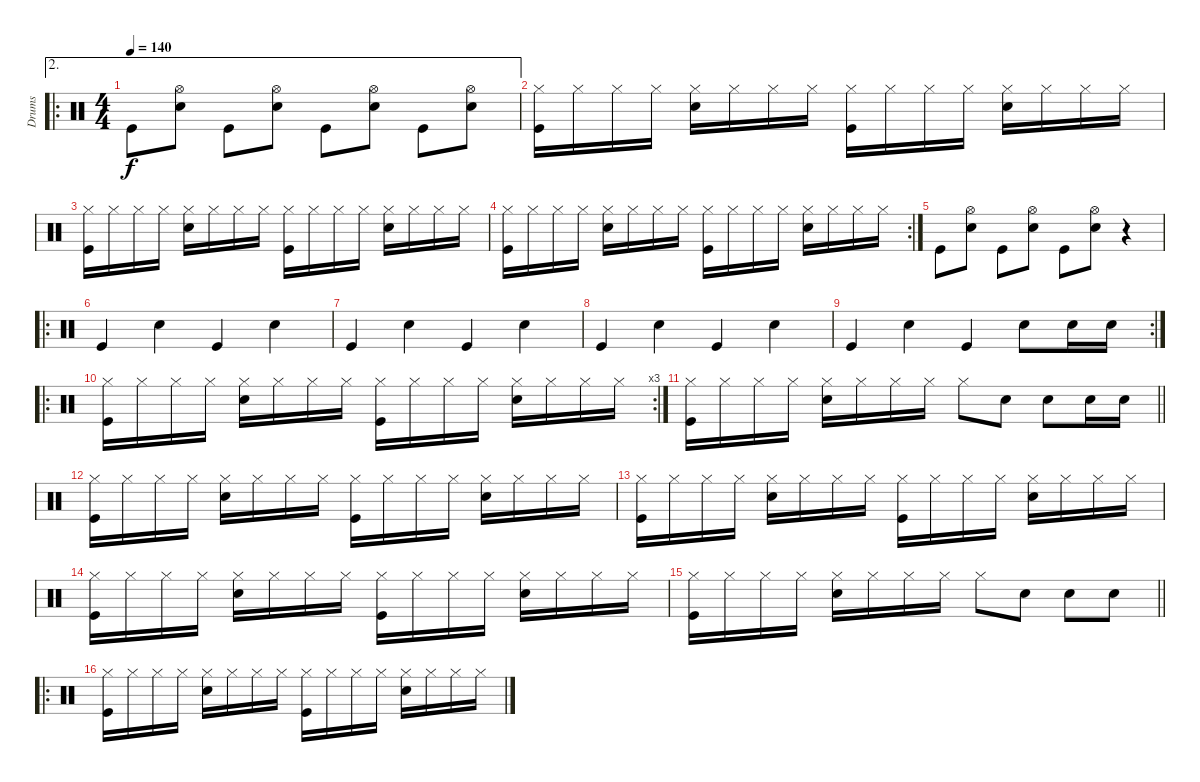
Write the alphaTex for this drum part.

\track ("Drums" "Drums") {instrument percussion}
\staff {score}
\articulation defaults
\ae 2
\ro
\ts (4 4)
\tempo 140
\clef neutral
\ks c "Kick (hit)".8{dy f}
("Snare (hit) 2" "Hi-Hat (open)").8 "Kick (hit)".8 ("Snare (hit) 2" "Hi-Hat (open)").8 "Kick (hit)".8 ("Snare (hit) 2" "Hi-Hat (open)").8 "Kick (hit)".8 ("Snare (hit) 2" "Hi-Hat (open)").8 |
("Hi-Hat (closed)" "Kick (hit)").16 "Hi-Hat (closed)".16 "Hi-Hat (closed)".16 "Hi-Hat (closed)".16 ("Snare (hit) 2" "Hi-Hat (closed)").16 "Hi-Hat (closed)".16 "Hi-Hat (closed)".16 "Hi-Hat (closed)".16 ("Hi-Hat (closed)" "Kick (hit)").16 "Hi-Hat (closed)".16 "Hi-Hat (closed)".16 "Hi-Hat (closed)".16 ("Snare (hit) 2" "Hi-Hat (closed)").16 "Hi-Hat (closed)".16 "Hi-Hat (closed)".16 "Hi-Hat (closed)".16 |
("Hi-Hat (closed)" "Kick (hit)").16 "Hi-Hat (closed)".16 "Hi-Hat (closed)".16 "Hi-Hat (closed)".16 ("Snare (hit) 2" "Hi-Hat (closed)").16 "Hi-Hat (closed)".16 "Hi-Hat (closed)".16 "Hi-Hat (closed)".16 ("Hi-Hat (closed)" "Kick (hit)").16 "Hi-Hat (closed)".16 "Hi-Hat (closed)".16 "Hi-Hat (closed)".16 ("Snare (hit) 2" "Hi-Hat (closed)").16 "Hi-Hat (closed)".16 "Hi-Hat (closed)".16 "Hi-Hat (closed)".16 |
\rc 2
("Hi-Hat (closed)" "Kick (hit)").16 "Hi-Hat (closed)".16 "Hi-Hat (closed)".16 "Hi-Hat (closed)".16 ("Snare (hit) 2" "Hi-Hat (closed)").16 "Hi-Hat (closed)".16 "Hi-Hat (closed)".16 "Hi-Hat (closed)".16 ("Hi-Hat (closed)" "Kick (hit)").16 "Hi-Hat (closed)".16 "Hi-Hat (closed)".16 "Hi-Hat (closed)".16 ("Snare (hit) 2" "Hi-Hat (closed)").16 "Hi-Hat (closed)".16 "Hi-Hat (closed)".16 "Hi-Hat (closed)".16 |
"Kick (hit)".8 ("Snare (hit) 2" "Hi-Hat (open)").8 "Kick (hit)".8 ("Snare (hit) 2" "Hi-Hat (open)").8 "Kick (hit)".8 ("Snare (hit) 2" "Hi-Hat (open)").8 r.4 |
\ro "Kick (hit)".4 "Snare (hit) 2".4 "Kick (hit)".4 "Snare (hit) 2".4
|
"Kick (hit)".4 "Snare (hit) 2".4 "Kick (hit)".4 "Snare (hit) 2".4 |
"Kick (hit)".4 "Snare (hit) 2".4 "Kick (hit)".4 "Snare (hit) 2".4 |
\rc 2 "Kick (hit)".4 "Snare (hit) 2".4 "Kick (hit)".4 "Snare (hit) 2".8 "Snare (hit) 2".16 "Snare (hit) 2".16
|
\ro
\rc 3
("Hi-Hat (closed)" "Kick (hit)").16 "Hi-Hat (closed)".16 "Hi-Hat (closed)".16 "Hi-Hat (closed)".16 ("Snare (hit) 2" "Hi-Hat (closed)").16 "Hi-Hat (closed)".16 "Hi-Hat (closed)".16 "Hi-Hat (closed)".16 ("Hi-Hat (closed)" "Kick (hit)").16 "Hi-Hat (closed)".16 "Hi-Hat (closed)".16 "Hi-Hat (closed)".16 ("Snare (hit) 2" "Hi-Hat (closed)").16 "Hi-Hat (closed)".16 "Hi-Hat (closed)".16 "Hi-Hat (closed)".16 |
\barLineRight lightlight
("Hi-Hat (closed)" "Kick (hit)").16 "Hi-Hat (closed)".16 "Hi-Hat (closed)".16 "Hi-Hat (closed)".16 ("Snare (hit) 2" "Hi-Hat (closed)").16 "Hi-Hat (closed)".16 "Hi-Hat (closed)".16 "Hi-Hat (closed)".16 "Hi-Hat (closed)".8 "Snare (hit) 2".8 "Snare (hit) 2".8 "Snare (hit) 2".16 "Snare (hit) 2".16 |
("Hi-Hat (closed)" "Kick (hit)").16 "Hi-Hat (closed)".16 "Hi-Hat (closed)".16 "Hi-Hat (closed)".16 ("Snare (hit) 2" "Hi-Hat (closed)").16 "Hi-Hat (closed)".16 "Hi-Hat (closed)".16 "Hi-Hat (closed)".16 ("Hi-Hat (closed)" "Kick (hit)").16 "Hi-Hat (closed)".16 "Hi-Hat (closed)".16 "Hi-Hat (closed)".16 ("Snare (hit) 2" "Hi-Hat (closed)").16 "Hi-Hat (closed)".16 "Hi-Hat (closed)".16 "Hi-Hat (closed)".16 |
("Hi-Hat (closed)" "Kick (hit)").16 "Hi-Hat (closed)".16 "Hi-Hat (closed)".16 "Hi-Hat (closed)".16 ("Snare (hit) 2" "Hi-Hat (closed)").16 "Hi-Hat (closed)".16 "Hi-Hat (closed)".16 "Hi-Hat (closed)".16 ("Hi-Hat (closed)" "Kick (hit)").16 "Hi-Hat (closed)".16 "Hi-Hat (closed)".16 "Hi-Hat (closed)".16 ("Snare (hit) 2" "Hi-Hat (closed)").16 "Hi-Hat (closed)".16 "Hi-Hat (closed)".16 "Hi-Hat (closed)".16 |
("Hi-Hat (closed)" "Kick (hit)").16 "Hi-Hat (closed)".16 "Hi-Hat (closed)".16 "Hi-Hat (closed)".16 ("Snare (hit) 2" "Hi-Hat (closed)").16 "Hi-Hat (closed)".16 "Hi-Hat (closed)".16 "Hi-Hat (closed)".16 ("Hi-Hat (closed)" "Kick (hit)").16 "Hi-Hat (closed)".16 "Hi-Hat (closed)".16 "Hi-Hat (closed)".16 ("Snare (hit) 2" "Hi-Hat (closed)").16 "Hi-Hat (closed)".16 "Hi-Hat (closed)".16 "Hi-Hat (closed)".16 |
\barLineRight lightlight
("Hi-Hat (closed)" "Kick (hit)").16 "Hi-Hat (closed)".16 "Hi-Hat (closed)".16 "Hi-Hat (closed)".16 ("Snare (hit) 2" "Hi-Hat (closed)").16 "Hi-Hat (closed)".16 "Hi-Hat (closed)".16 "Hi-Hat (closed)".16 "Hi-Hat (closed)".8 "Snare (hit) 2".8 "Snare (hit) 2".8 "Snare (hit) 2".8 |
\ro
("Hi-Hat (closed)" "Kick (hit)").16 "Hi-Hat (closed)".16 "Hi-Hat (closed)".16 "Hi-Hat (closed)".16 ("Snare (hit) 2" "Hi-Hat (closed)").16 "Hi-Hat (closed)".16 "Hi-Hat (closed)".16 "Hi-Hat (closed)".16 ("Hi-Hat (closed)" "Kick (hit)").16 "Hi-Hat (closed)".16 "Hi-Hat (closed)".16 "Hi-Hat (closed)".16 ("Snare (hit) 2" "Hi-Hat (closed)").16 "Hi-Hat (closed)".16 "Hi-Hat (closed)".16 "Hi-Hat (closed)".16
